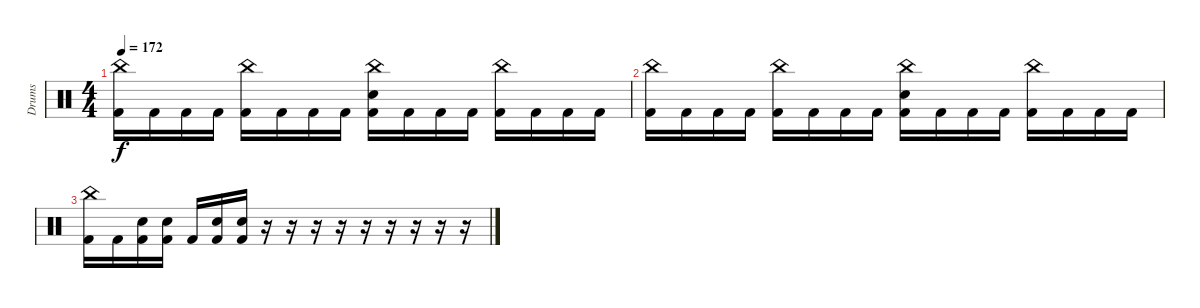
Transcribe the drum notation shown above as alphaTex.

\track ("Drums" "Drums") {instrument percussion}
\staff {score}
\articulation defaults
\ts (4 4)
\tempo 172
\clef neutral
\ks c
("China (hit)" "Kick (hit) 2").16{dy f} "Kick (hit) 2".16 "Kick (hit) 2".16 "Kick (hit) 2".16 ("China (hit)" "Kick (hit) 2").16 "Kick (hit) 2".16 "Kick (hit) 2".16 "Kick (hit) 2".16 ("China (hit)" "Electric Snare (hit)" "Kick (hit) 2").16 "Kick (hit) 2".16 "Kick (hit) 2".16 "Kick (hit) 2".16 ("China (hit)" "Kick (hit) 2").16 "Kick (hit) 2".16 "Kick (hit) 2".16 "Kick (hit) 2".16 |
("China (hit)" "Kick (hit) 2").16 "Kick (hit) 2".16 "Kick (hit) 2".16 "Kick (hit) 2".16 ("China (hit)" "Kick (hit) 2").16 "Kick (hit) 2".16 "Kick (hit) 2".16 "Kick (hit) 2".16 ("China (hit)" "Electric Snare (hit)" "Kick (hit) 2").16 "Kick (hit) 2".16 "Kick (hit) 2".16 "Kick (hit) 2".16 ("China (hit)" "Kick (hit) 2").16 "Kick (hit) 2".16 "Kick (hit) 2".16 "Kick (hit) 2".16 |
("China (hit)" "Kick (hit) 2").16 "Kick (hit) 2".16 ("Electric Snare (hit)" "Kick (hit) 2").16 ("Electric Snare (hit)" "Kick (hit) 2").16 "Kick (hit) 2".16 ("Electric Snare (hit)" "Kick (hit) 2").16 ("Electric Snare (hit)" "Kick (hit) 2").16 r.16 r.16 r.16 r.16 r.16 r.16 r.16 r.16 r.16
